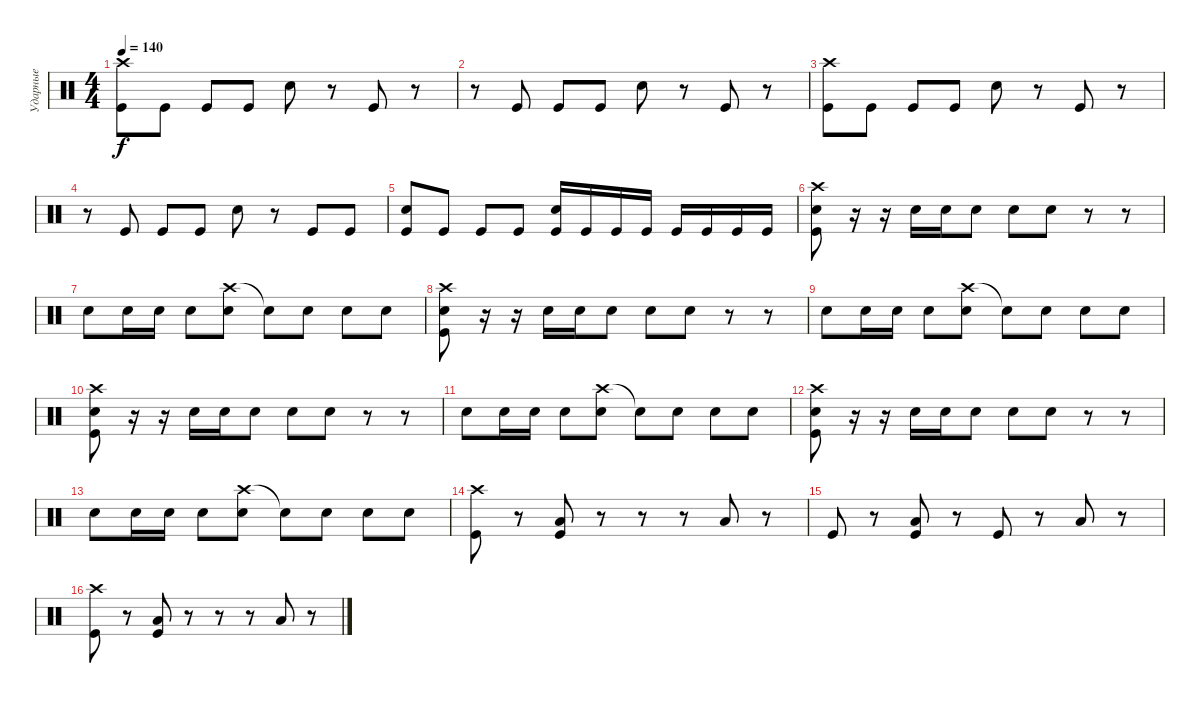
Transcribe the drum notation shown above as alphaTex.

\track ("Ударные" "Ударные") {instrument percussion}
\staff {score}
\articulation defaults
\ts (4 4)
\tempo 140
\clef neutral
\ks c
("Crash high (hit)" "Kick (hit)").8{dy f} "Kick (hit)".8 "Kick (hit)".8 "Kick (hit)".8 "Electric Snare (hit)".8 r.8 "Kick (hit)".8 r.8 |
r.8 "Kick (hit)".8 "Kick (hit)".8 "Kick (hit)".8 "Electric Snare (hit)".8 r.8 "Kick (hit)".8 r.8 |
("Crash high (hit)" "Kick (hit)").8 "Kick (hit)".8 "Kick (hit)".8 "Kick (hit)".8 "Electric Snare (hit)".8 r.8 "Kick (hit)".8 r.8 |
r.8 "Kick (hit)".8 "Kick (hit)".8 "Kick (hit)".8 "Electric Snare (hit)".8 r.8 "Kick (hit)".8 "Kick (hit)".8 |
("Electric Snare (hit)" "Kick (hit)").8 "Kick (hit)".8 "Kick (hit)".8 "Kick (hit)".8 ("Electric Snare (hit)" "Kick (hit)").16 "Kick (hit)".16 "Kick (hit)".16 "Kick (hit)".16 "Kick (hit)".16 "Kick (hit)".16 "Kick (hit)".16 "Kick (hit)".16 |
("Crash high (hit)" "Electric Snare (hit)" "Kick (hit)").8 r.16 r.16 "Electric Snare (hit)".16 "Electric Snare (hit)".16 "Electric Snare (hit)".8 "Electric Snare (hit)".8 "Electric Snare (hit)".8 r.8 r.8 |
"Electric Snare (hit)".8 "Electric Snare (hit)".16 "Electric Snare (hit)".16 "Electric Snare (hit)".8 ("Crash high (hit)" "Electric Snare (hit)").8 "Electric Snare (hit)"{t}.8 "Electric Snare (hit)".8 "Electric Snare (hit)".8 "Electric Snare (hit)".8 |
("Crash high (hit)" "Electric Snare (hit)" "Kick (hit)").8 r.16 r.16 "Electric Snare (hit)".16 "Electric Snare (hit)".16 "Electric Snare (hit)".8 "Electric Snare (hit)".8 "Electric Snare (hit)".8 r.8 r.8 |
"Electric Snare (hit)".8 "Electric Snare (hit)".16 "Electric Snare (hit)".16 "Electric Snare (hit)".8 ("Crash high (hit)" "Electric Snare (hit)").8 "Electric Snare (hit)"{t}.8 "Electric Snare (hit)".8 "Electric Snare (hit)".8 "Electric Snare (hit)".8 |
("Crash high (hit)" "Electric Snare (hit)" "Kick (hit)").8 r.16 r.16 "Electric Snare (hit)".16 "Electric Snare (hit)".16 "Electric Snare (hit)".8 "Electric Snare (hit)".8 "Electric Snare (hit)".8 r.8 r.8 |
"Electric Snare (hit)".8 "Electric Snare (hit)".16 "Electric Snare (hit)".16 "Electric Snare (hit)".8 ("Crash high (hit)" "Electric Snare (hit)").8 "Electric Snare (hit)"{t}.8 "Electric Snare (hit)".8 "Electric Snare (hit)".8 "Electric Snare (hit)".8 |
("Crash high (hit)" "Electric Snare (hit)" "Kick (hit)").8 r.16 r.16 "Electric Snare (hit)".16 "Electric Snare (hit)".16 "Electric Snare (hit)".8 "Electric Snare (hit)".8 "Electric Snare (hit)".8 r.8 r.8 |
"Electric Snare (hit)".8 "Electric Snare (hit)".16 "Electric Snare (hit)".16 "Electric Snare (hit)".8 ("Crash high (hit)" "Electric Snare (hit)").8 "Electric Snare (hit)"{t}.8 "Electric Snare (hit)".8 "Electric Snare (hit)".8 "Electric Snare (hit)".8 |
("Crash high (hit)" "Kick (hit)").8 r.8 ("Low Tom (hit)" "Kick (hit)").8 r.8 r.8 r.8 "Low Tom (hit)".8 r.8 |
"Kick (hit)".8 r.8 ("Low Tom (hit)" "Kick (hit)").8 r.8 "Kick (hit)".8 r.8 "Low Tom (hit)".8 r.8 |
("Crash high (hit)" "Kick (hit)").8 r.8 ("Low Tom (hit)" "Kick (hit)").8 r.8 r.8 r.8 "Low Tom (hit)".8 r.8
